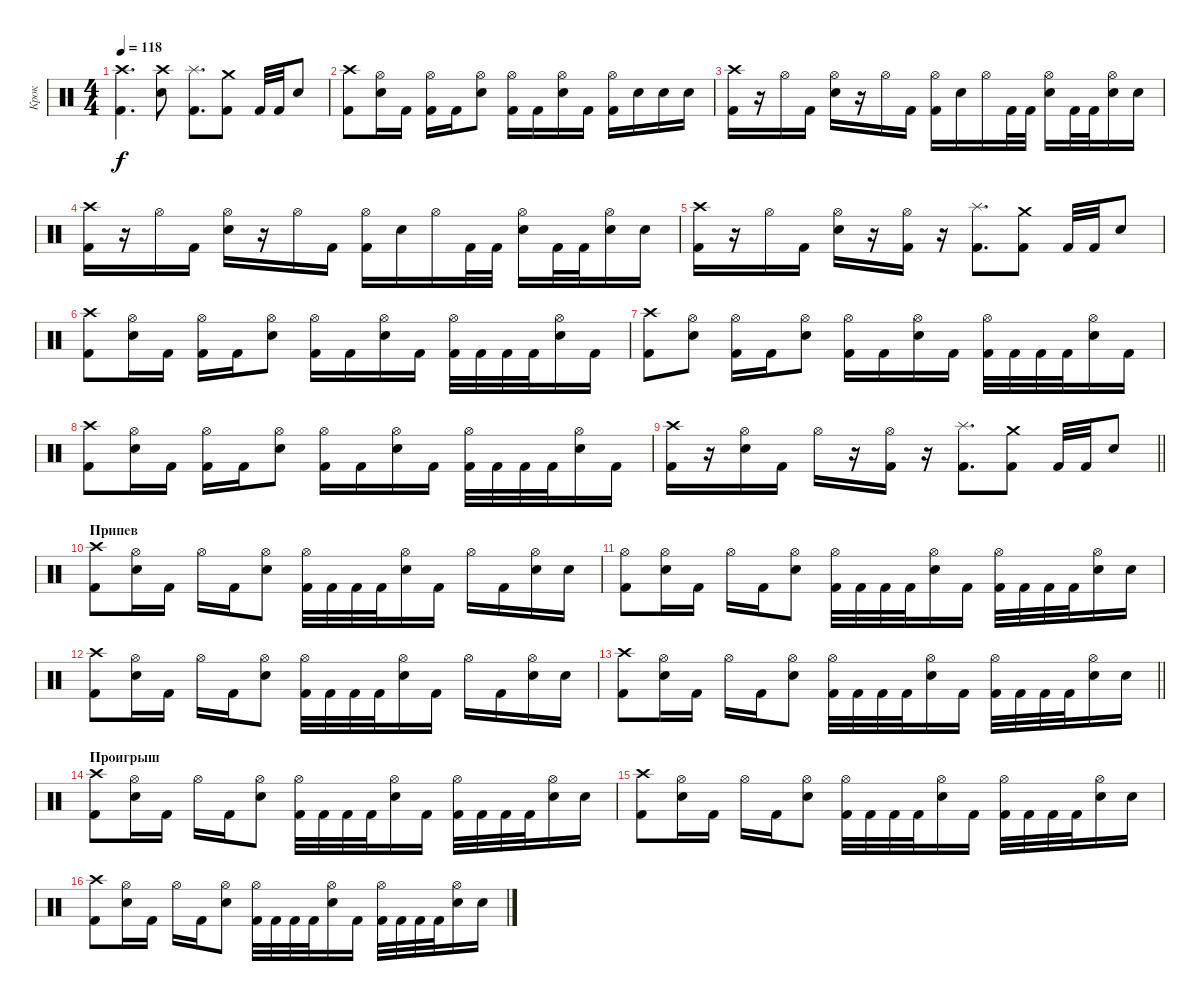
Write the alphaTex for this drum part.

\track ("Крок" "Крок") {instrument percussion}
\staff {score}
\articulation defaults
\ts (4 4)
\tempo 118
\clef neutral
\ks c
("Kick (hit) 2" "Crash high (hit)").4{d dy f} ("Electric Snare (hit)" "Crash high (hit)").8 ("Kick (hit) 2" "Splash (hit)").8{d} ("Kick (hit) 2" "Crash medium (hit)").8 "Kick (hit) 2".32 "Kick (hit) 2".32 "Electric Snare (hit)".8 |
("Kick (hit) 2" "Crash high (hit)").8 ("Electric Snare (hit)" "Hi-Hat (open)").16 "Kick (hit) 2".16 ("Kick (hit) 2" "Hi-Hat (open)").16 "Kick (hit) 2".16 ("Electric Snare (hit)" "Hi-Hat (open)").8 ("Kick (hit) 2" "Hi-Hat (open)").16 "Kick (hit) 2".16 ("Electric Snare (hit)" "Hi-Hat (open)").16 "Kick (hit) 2".16 ("Kick (hit) 2" "Hi-Hat (open)").16 "Electric Snare (hit)".16 "Electric Snare (hit)".16 "Electric Snare (hit)".16 |
("Kick (hit) 2" "Crash high (hit)").16 r.16 "Hi-Hat (open)".16 "Kick (hit) 2".16 ("Electric Snare (hit)" "Hi-Hat (open)").16 r.16 "Hi-Hat (open)".16 "Kick (hit) 2".16 ("Kick (hit) 2" "Hi-Hat (open)").16 "Electric Snare (hit)".16 "Hi-Hat (open)".16 "Kick (hit) 2".32 "Kick (hit) 2".32 ("Electric Snare (hit)" "Hi-Hat (open)").16 "Kick (hit) 2".32 "Kick (hit) 2".32 ("Electric Snare (hit)" "Hi-Hat (open)").16 "Electric Snare (hit)".16 |
("Kick (hit) 2" "Crash high (hit)").16 r.16 "Hi-Hat (open)".16 "Kick (hit) 2".16 ("Electric Snare (hit)" "Hi-Hat (open)").16 r.16 "Hi-Hat (open)".16 "Kick (hit) 2".16 ("Kick (hit) 2" "Hi-Hat (open)").16 "Electric Snare (hit)".16 "Hi-Hat (open)".16 "Kick (hit) 2".32 "Kick (hit) 2".32 ("Electric Snare (hit)" "Hi-Hat (open)").16 "Kick (hit) 2".32 "Kick (hit) 2".32 ("Electric Snare (hit)" "Hi-Hat (open)").16 "Electric Snare (hit)".16 |
("Kick (hit) 2" "Crash high (hit)").16 r.16 "Hi-Hat (open)".16 "Kick (hit) 2".16 ("Electric Snare (hit)" "Hi-Hat (open)").16 r.16 ("Kick (hit) 2" "Hi-Hat (open)").16 r.16 ("Kick (hit) 2" "Splash (hit)").8{d} ("Kick (hit) 2" "Crash medium (hit)").8 "Kick (hit) 2".32 "Kick (hit) 2".32 "Electric Snare (hit)".8 |
("Kick (hit) 2" "Crash high (hit)").8 ("Electric Snare (hit)" "Hi-Hat (open)").16 "Kick (hit) 2".16 ("Kick (hit) 2" "Hi-Hat (open)").16 "Kick (hit) 2".16 ("Electric Snare (hit)" "Hi-Hat (open)").8 ("Kick (hit) 2" "Hi-Hat (open)").16 "Kick (hit) 2".16 ("Electric Snare (hit)" "Hi-Hat (open)").16 "Kick (hit) 2".16 ("Kick (hit) 2" "Hi-Hat (open)").32 "Kick (hit) 2".32 "Kick (hit) 2".32 "Kick (hit) 2".32 ("Electric Snare (hit)" "Hi-Hat (open)").16 "Kick (hit) 2".16 |
("Kick (hit) 2" "Crash high (hit)").8 ("Electric Snare (hit)" "Hi-Hat (open)").8 ("Kick (hit) 2" "Hi-Hat (open)").16 "Kick (hit) 2".16 ("Electric Snare (hit)" "Hi-Hat (open)").8 ("Kick (hit) 2" "Hi-Hat (open)").16 "Kick (hit) 2".16 ("Electric Snare (hit)" "Hi-Hat (open)").16 "Kick (hit) 2".16 ("Kick (hit) 2" "Hi-Hat (open)").32 "Kick (hit) 2".32 "Kick (hit) 2".32 "Kick (hit) 2".32 ("Electric Snare (hit)" "Hi-Hat (open)").16 "Kick (hit) 2".16 |
("Kick (hit) 2" "Crash high (hit)").8 ("Electric Snare (hit)" "Hi-Hat (open)").16 "Kick (hit) 2".16 ("Kick (hit) 2" "Hi-Hat (open)").16 "Kick (hit) 2".16 ("Electric Snare (hit)" "Hi-Hat (open)").8 ("Kick (hit) 2" "Hi-Hat (open)").16 "Kick (hit) 2".16 ("Electric Snare (hit)" "Hi-Hat (open)").16 "Kick (hit) 2".16 ("Kick (hit) 2" "Hi-Hat (open)").32 "Kick (hit) 2".32 "Kick (hit) 2".32 "Kick (hit) 2".32 ("Electric Snare (hit)" "Hi-Hat (open)").16 "Kick (hit) 2".16 |
\barLineRight lightlight
("Kick (hit) 2" "Crash high (hit)").16 r.16 ("Electric Snare (hit)" "Hi-Hat (open)").16 "Kick (hit) 2".16 "Hi-Hat (open)".16 r.16 ("Kick (hit) 2" "Hi-Hat (open)").16 r.16 ("Kick (hit) 2" "Splash (hit)").8{d} ("Kick (hit) 2" "Crash medium (hit)").8 "Kick (hit) 2".32 "Kick (hit) 2".32 "Electric Snare (hit)".8 |
\section ("" "Припев")
("Kick (hit) 2" "Crash high (hit)").8 ("Electric Snare (hit)" "Hi-Hat (open)").16 "Kick (hit) 2".16 "Hi-Hat (open)".16 "Kick (hit) 2".16 ("Electric Snare (hit)" "Hi-Hat (open)").8 ("Kick (hit) 2" "Hi-Hat (open)").32 "Kick (hit) 2".32 "Kick (hit) 2".32 "Kick (hit) 2".32 ("Electric Snare (hit)" "Hi-Hat (open)").16 "Kick (hit) 2".16 "Hi-Hat (open)".16 "Kick (hit) 2".16 ("Electric Snare (hit)" "Hi-Hat (open)").16 "Electric Snare (hit)".16 |
("Kick (hit) 2" "Hi-Hat (open)").8 ("Electric Snare (hit)" "Hi-Hat (open)").16 "Kick (hit) 2".16 "Hi-Hat (open)".16 "Kick (hit) 2".16 ("Electric Snare (hit)" "Hi-Hat (open)").8 ("Kick (hit) 2" "Hi-Hat (open)").32 "Kick (hit) 2".32 "Kick (hit) 2".32 "Kick (hit) 2".32 ("Electric Snare (hit)" "Hi-Hat (open)").16 "Kick (hit) 2".16 ("Kick (hit) 2" "Hi-Hat (open)").32 "Kick (hit) 2".32 "Kick (hit) 2".32 "Kick (hit) 2".32 ("Electric Snare (hit)" "Hi-Hat (open)").16 "Electric Snare (hit)".16 |
("Kick (hit) 2" "Crash high (hit)").8 ("Electric Snare (hit)" "Hi-Hat (open)").16 "Kick (hit) 2".16 "Hi-Hat (open)".16 "Kick (hit) 2".16 ("Electric Snare (hit)" "Hi-Hat (open)").8 ("Kick (hit) 2" "Hi-Hat (open)").32 "Kick (hit) 2".32 "Kick (hit) 2".32 "Kick (hit) 2".32 ("Electric Snare (hit)" "Hi-Hat (open)").16 "Kick (hit) 2".16 "Hi-Hat (open)".16 "Kick (hit) 2".16 ("Electric Snare (hit)" "Hi-Hat (open)").16 "Electric Snare (hit)".16 |
\barLineRight lightlight
("Kick (hit) 2" "Crash high (hit)").8 ("Electric Snare (hit)" "Hi-Hat (open)").16 "Kick (hit) 2".16 "Hi-Hat (open)".16 "Kick (hit) 2".16 ("Electric Snare (hit)" "Hi-Hat (open)").8 ("Kick (hit) 2" "Hi-Hat (open)").32 "Kick (hit) 2".32 "Kick (hit) 2".32 "Kick (hit) 2".32 ("Electric Snare (hit)" "Hi-Hat (open)").16 "Kick (hit) 2".16 ("Kick (hit) 2" "Hi-Hat (open)").32 "Kick (hit) 2".32 "Kick (hit) 2".32 "Kick (hit) 2".32 ("Electric Snare (hit)" "Hi-Hat (open)").16 "Electric Snare (hit)".16 |
\section ("" "Проигрыш")
("Kick (hit) 2" "Crash high (hit)").8 ("Electric Snare (hit)" "Hi-Hat (open)").16 "Kick (hit) 2".16 "Hi-Hat (open)".16 "Kick (hit) 2".16 ("Electric Snare (hit)" "Hi-Hat (open)").8 ("Kick (hit) 2" "Hi-Hat (open)").32 "Kick (hit) 2".32 "Kick (hit) 2".32 "Kick (hit) 2".32 ("Electric Snare (hit)" "Hi-Hat (open)").16 "Kick (hit) 2".16 ("Kick (hit) 2" "Hi-Hat (open)").32 "Kick (hit) 2".32 "Kick (hit) 2".32 "Kick (hit) 2".32 ("Electric Snare (hit)" "Hi-Hat (open)").16 "Electric Snare (hit)".16 |
("Kick (hit) 2" "Crash high (hit)").8 ("Electric Snare (hit)" "Hi-Hat (open)").16 "Kick (hit) 2".16 "Hi-Hat (open)".16 "Kick (hit) 2".16 ("Electric Snare (hit)" "Hi-Hat (open)").8 ("Kick (hit) 2" "Hi-Hat (open)").32 "Kick (hit) 2".32 "Kick (hit) 2".32 "Kick (hit) 2".32 ("Electric Snare (hit)" "Hi-Hat (open)").16 "Kick (hit) 2".16 ("Kick (hit) 2" "Hi-Hat (open)").32 "Kick (hit) 2".32 "Kick (hit) 2".32 "Kick (hit) 2".32 ("Electric Snare (hit)" "Hi-Hat (open)").16 "Electric Snare (hit)".16 |
("Kick (hit) 2" "Crash high (hit)").8 ("Electric Snare (hit)" "Hi-Hat (open)").16 "Kick (hit) 2".16 "Hi-Hat (open)".16 "Kick (hit) 2".16 ("Electric Snare (hit)" "Hi-Hat (open)").8 ("Kick (hit) 2" "Hi-Hat (open)").32 "Kick (hit) 2".32 "Kick (hit) 2".32 "Kick (hit) 2".32 ("Electric Snare (hit)" "Hi-Hat (open)").16 "Kick (hit) 2".16 ("Kick (hit) 2" "Hi-Hat (open)").32 "Kick (hit) 2".32 "Kick (hit) 2".32 "Kick (hit) 2".32 ("Electric Snare (hit)" "Hi-Hat (open)").16 "Electric Snare (hit)".16
